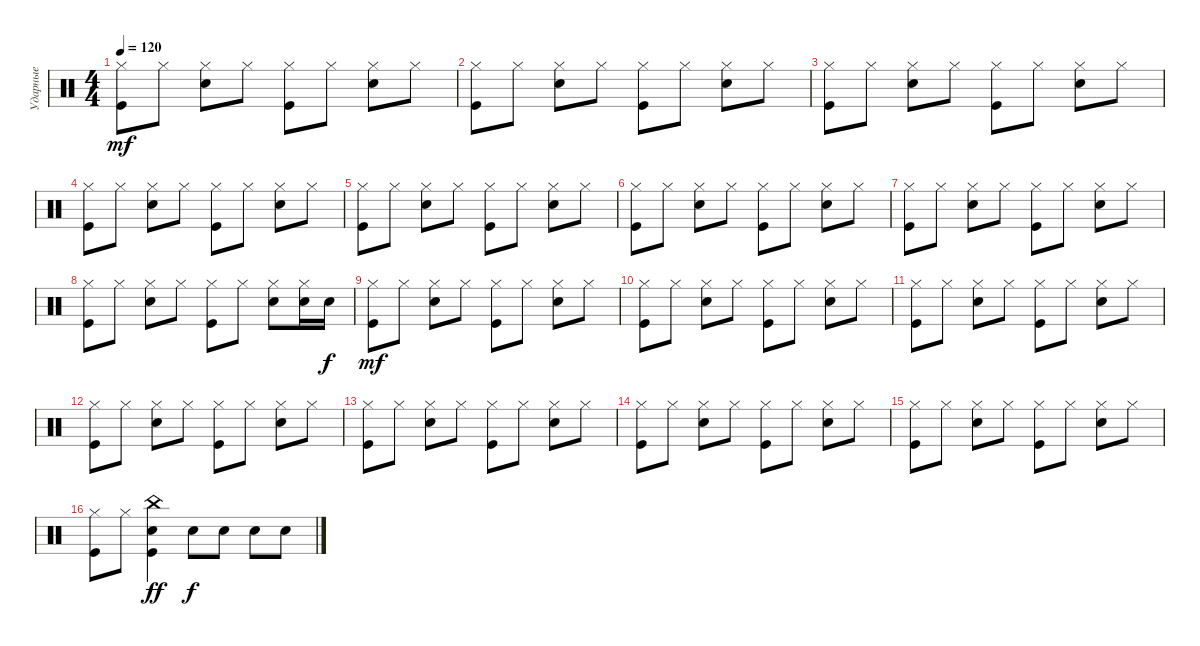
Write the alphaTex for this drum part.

\track ("Ударные" "Ударные") {instrument percussion}
\staff {score}
\articulation defaults
\ts (4 4)
\tempo 120
\clef neutral
\ks c
("Kick (hit)" "Hi-Hat (closed)").8{dy mf} "Hi-Hat (closed)".8 ("Snare (hit) 2" "Hi-Hat (closed)").8 "Hi-Hat (closed)".8 ("Kick (hit)" "Hi-Hat (closed)").8 "Hi-Hat (closed)".8 ("Snare (hit) 2" "Hi-Hat (closed)").8 "Hi-Hat (closed)".8 |
("Kick (hit)" "Hi-Hat (closed)").8 "Hi-Hat (closed)".8 ("Snare (hit) 2" "Hi-Hat (closed)").8 "Hi-Hat (closed)".8 ("Kick (hit)" "Hi-Hat (closed)").8 "Hi-Hat (closed)".8 ("Snare (hit) 2" "Hi-Hat (closed)").8 "Hi-Hat (closed)".8 |
("Kick (hit)" "Hi-Hat (closed)").8 "Hi-Hat (closed)".8 ("Snare (hit) 2" "Hi-Hat (closed)").8 "Hi-Hat (closed)".8 ("Kick (hit)" "Hi-Hat (closed)").8 "Hi-Hat (closed)".8 ("Snare (hit) 2" "Hi-Hat (closed)").8 "Hi-Hat (closed)".8 |
("Kick (hit)" "Hi-Hat (closed)").8 "Hi-Hat (closed)".8 ("Snare (hit) 2" "Hi-Hat (closed)").8 "Hi-Hat (closed)".8 ("Kick (hit)" "Hi-Hat (closed)").8 "Hi-Hat (closed)".8 ("Snare (hit) 2" "Hi-Hat (closed)").8 "Hi-Hat (closed)".8 |
("Kick (hit)" "Hi-Hat (closed)").8 "Hi-Hat (closed)".8 ("Snare (hit) 2" "Hi-Hat (closed)").8 "Hi-Hat (closed)".8 ("Kick (hit)" "Hi-Hat (closed)").8 "Hi-Hat (closed)".8 ("Snare (hit) 2" "Hi-Hat (closed)").8 "Hi-Hat (closed)".8 |
("Kick (hit)" "Hi-Hat (closed)").8 "Hi-Hat (closed)".8 ("Snare (hit) 2" "Hi-Hat (closed)").8 "Hi-Hat (closed)".8 ("Kick (hit)" "Hi-Hat (closed)").8 "Hi-Hat (closed)".8 ("Snare (hit) 2" "Hi-Hat (closed)").8 "Hi-Hat (closed)".8 |
("Kick (hit)" "Hi-Hat (closed)").8 "Hi-Hat (closed)".8 ("Snare (hit) 2" "Hi-Hat (closed)").8 "Hi-Hat (closed)".8 ("Kick (hit)" "Hi-Hat (closed)").8 "Hi-Hat (closed)".8 ("Snare (hit) 2" "Hi-Hat (closed)").8 "Hi-Hat (closed)".8 |
("Kick (hit)" "Hi-Hat (closed)").8 "Hi-Hat (closed)".8 ("Snare (hit) 2" "Hi-Hat (closed)").8 "Hi-Hat (closed)".8 ("Kick (hit)" "Hi-Hat (closed)").8 "Hi-Hat (closed)".8 ("Snare (hit) 2" "Hi-Hat (closed)").8 ("Hi-Hat (closed)" "Snare (hit) 2").16 "Snare (hit) 2".16{dy f} |
("Kick (hit)" "Hi-Hat (closed)").8{dy mf} "Hi-Hat (closed)".8 ("Snare (hit) 2" "Hi-Hat (closed)").8 "Hi-Hat (closed)".8 ("Kick (hit)" "Hi-Hat (closed)").8 "Hi-Hat (closed)".8 ("Snare (hit) 2" "Hi-Hat (closed)").8 "Hi-Hat (closed)".8 |
("Kick (hit)" "Hi-Hat (closed)").8 "Hi-Hat (closed)".8 ("Snare (hit) 2" "Hi-Hat (closed)").8 "Hi-Hat (closed)".8 ("Kick (hit)" "Hi-Hat (closed)").8 "Hi-Hat (closed)".8 ("Snare (hit) 2" "Hi-Hat (closed)").8 "Hi-Hat (closed)".8 |
("Kick (hit)" "Hi-Hat (closed)").8 "Hi-Hat (closed)".8 ("Snare (hit) 2" "Hi-Hat (closed)").8 "Hi-Hat (closed)".8 ("Kick (hit)" "Hi-Hat (closed)").8 "Hi-Hat (closed)".8 ("Snare (hit) 2" "Hi-Hat (closed)").8 "Hi-Hat (closed)".8 |
("Kick (hit)" "Hi-Hat (closed)").8 "Hi-Hat (closed)".8 ("Snare (hit) 2" "Hi-Hat (closed)").8 "Hi-Hat (closed)".8 ("Kick (hit)" "Hi-Hat (closed)").8 "Hi-Hat (closed)".8 ("Snare (hit) 2" "Hi-Hat (closed)").8 "Hi-Hat (closed)".8 |
("Kick (hit)" "Hi-Hat (closed)").8 "Hi-Hat (closed)".8 ("Snare (hit) 2" "Hi-Hat (closed)").8 "Hi-Hat (closed)".8 ("Kick (hit)" "Hi-Hat (closed)").8 "Hi-Hat (closed)".8 ("Snare (hit) 2" "Hi-Hat (closed)").8 "Hi-Hat (closed)".8 |
("Kick (hit)" "Hi-Hat (closed)").8 "Hi-Hat (closed)".8 ("Snare (hit) 2" "Hi-Hat (closed)").8 "Hi-Hat (closed)".8 ("Kick (hit)" "Hi-Hat (closed)").8 "Hi-Hat (closed)".8 ("Snare (hit) 2" "Hi-Hat (closed)").8 "Hi-Hat (closed)".8 |
("Kick (hit)" "Hi-Hat (closed)").8 "Hi-Hat (closed)".8 ("Snare (hit) 2" "Hi-Hat (closed)").8 "Hi-Hat (closed)".8 ("Kick (hit)" "Hi-Hat (closed)").8 "Hi-Hat (closed)".8 ("Snare (hit) 2" "Hi-Hat (closed)").8 "Hi-Hat (closed)".8 |
("Kick (hit)" "Hi-Hat (closed)").8 "Hi-Hat (closed)".8 ("Kick (hit)" "Hand Clap (hit)" "China (hit)").4{dy ff} "Snare (hit) 2".8{dy f} "Snare (hit) 2".8 "Snare (hit) 2".8 "Snare (hit) 2".8
